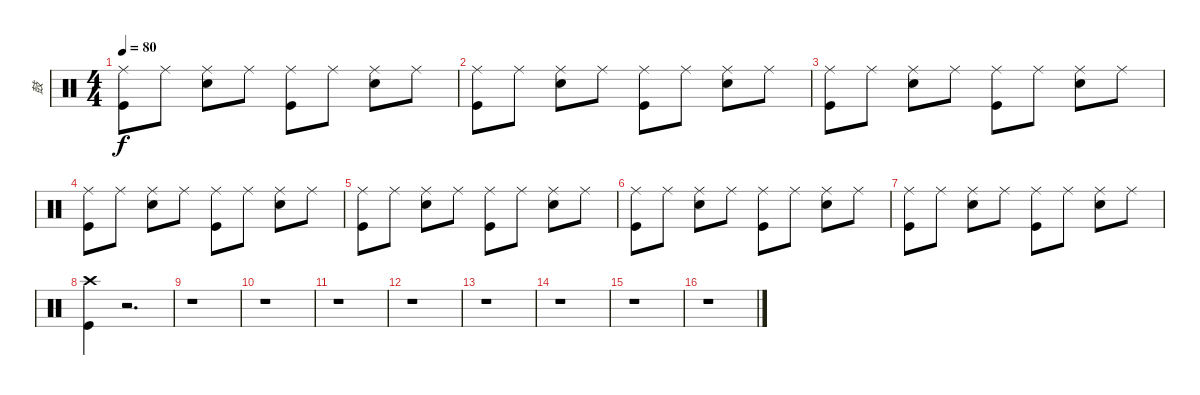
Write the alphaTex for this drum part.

\track ("鼓" "鼓") {instrument percussion}
\staff {score}
\articulation defaults
\ts (4 4)
\tempo 80
\clef neutral
\ks c
("Ride (middle)" "Kick (hit)").8{dy f} "Ride (middle)".8 ("Ride (middle)" "Snare (hit) 2").8 "Ride (middle)".8 ("Ride (middle)" "Kick (hit)").8 "Ride (middle)".8 ("Ride (middle)" "Snare (hit) 2").8 "Ride (middle)".8 |
("Ride (middle)" "Kick (hit)").8 "Ride (middle)".8 ("Ride (middle)" "Snare (hit) 2").8 "Ride (middle)".8 ("Ride (middle)" "Kick (hit)").8 "Ride (middle)".8 ("Ride (middle)" "Snare (hit) 2").8 "Ride (middle)".8 |
("Ride (middle)" "Kick (hit)").8 "Ride (middle)".8 ("Ride (middle)" "Snare (hit) 2").8 "Ride (middle)".8 ("Ride (middle)" "Kick (hit)").8 "Ride (middle)".8 ("Ride (middle)" "Snare (hit) 2").8 "Ride (middle)".8 |
("Ride (middle)" "Kick (hit)").8 "Ride (middle)".8 ("Ride (middle)" "Snare (hit) 2").8 "Ride (middle)".8 ("Ride (middle)" "Kick (hit)").8 "Ride (middle)".8 ("Ride (middle)" "Snare (hit) 2").8 "Ride (middle)".8 |
("Ride (middle)" "Kick (hit)").8 "Ride (middle)".8 ("Ride (middle)" "Snare (hit) 2").8 "Ride (middle)".8 ("Ride (middle)" "Kick (hit)").8 "Ride (middle)".8 ("Ride (middle)" "Snare (hit) 2").8 "Ride (middle)".8 |
("Ride (middle)" "Kick (hit)").8 "Ride (middle)".8 ("Ride (middle)" "Snare (hit) 2").8 "Ride (middle)".8 ("Ride (middle)" "Kick (hit)").8 "Ride (middle)".8 ("Ride (middle)" "Snare (hit) 2").8 "Ride (middle)".8 |
("Ride (middle)" "Kick (hit)").8 "Ride (middle)".8 ("Ride (middle)" "Snare (hit) 2").8 "Ride (middle)".8 ("Ride (middle)" "Kick (hit)").8 "Ride (middle)".8 ("Ride (middle)" "Snare (hit) 2").8 "Ride (middle)".8 |
("Crash high (hit)" "Kick (hit)").4 r.2{d} |
r.1 |
r.1 |
r.1 |
r.1 |
r.1 |
r.1 |
r.1 |
r.1
